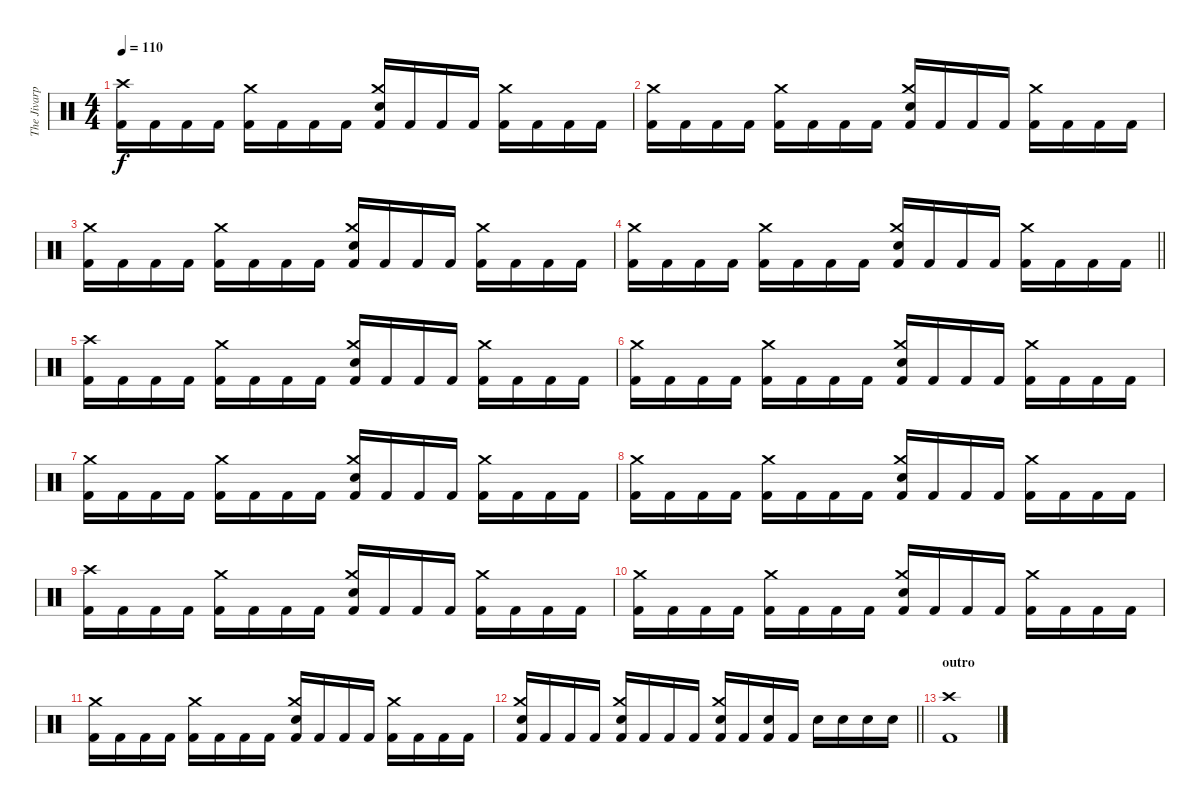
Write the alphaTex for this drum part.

\track ("The Jivarp" "The Jivarp") {instrument percussion}
\staff {score}
\articulation defaults
\ts (4 4)
\tempo 110
\clef neutral
\ks c
("Crash high (hit)" "Kick (hit) 2").16{dy f} "Kick (hit) 2".16 "Kick (hit) 2".16 "Kick (hit) 2".16 ("Crash medium (hit)" "Kick (hit) 2").16 "Kick (hit) 2".16 "Kick (hit) 2".16 "Kick (hit) 2".16 ("Crash medium (hit)" "Electric Snare (hit)" "Kick (hit) 2").16 "Kick (hit) 2".16 "Kick (hit) 2".16 "Kick (hit) 2".16 ("Crash medium (hit)" "Kick (hit) 2").16 "Kick (hit) 2".16 "Kick (hit) 2".16 "Kick (hit) 2".16 |
("Crash medium (hit)" "Kick (hit) 2").16 "Kick (hit) 2".16 "Kick (hit) 2".16 "Kick (hit) 2".16 ("Crash medium (hit)" "Kick (hit) 2").16 "Kick (hit) 2".16 "Kick (hit) 2".16 "Kick (hit) 2".16 ("Crash medium (hit)" "Electric Snare (hit)" "Kick (hit) 2").16 "Kick (hit) 2".16 "Kick (hit) 2".16 "Kick (hit) 2".16 ("Crash medium (hit)" "Kick (hit) 2").16 "Kick (hit) 2".16 "Kick (hit) 2".16 "Kick (hit) 2".16 |
("Crash medium (hit)" "Kick (hit) 2").16 "Kick (hit) 2".16 "Kick (hit) 2".16 "Kick (hit) 2".16 ("Crash medium (hit)" "Kick (hit) 2").16 "Kick (hit) 2".16 "Kick (hit) 2".16 "Kick (hit) 2".16 ("Crash medium (hit)" "Electric Snare (hit)" "Kick (hit) 2").16 "Kick (hit) 2".16 "Kick (hit) 2".16 "Kick (hit) 2".16 ("Crash medium (hit)" "Kick (hit) 2").16 "Kick (hit) 2".16 "Kick (hit) 2".16 "Kick (hit) 2".16 |
\barLineRight lightlight
("Crash medium (hit)" "Kick (hit) 2").16 "Kick (hit) 2".16 "Kick (hit) 2".16 "Kick (hit) 2".16 ("Crash medium (hit)" "Kick (hit) 2").16 "Kick (hit) 2".16 "Kick (hit) 2".16 "Kick (hit) 2".16 ("Crash medium (hit)" "Electric Snare (hit)" "Kick (hit) 2").16 "Kick (hit) 2".16 "Kick (hit) 2".16 "Kick (hit) 2".16 ("Crash medium (hit)" "Kick (hit) 2").16 "Kick (hit) 2".16 "Kick (hit) 2".16 "Kick (hit) 2".16 |
\section ("" "")
("Crash high (hit)" "Kick (hit) 2").16 "Kick (hit) 2".16 "Kick (hit) 2".16 "Kick (hit) 2".16 ("Crash medium (hit)" "Kick (hit) 2").16 "Kick (hit) 2".16 "Kick (hit) 2".16 "Kick (hit) 2".16 ("Crash medium (hit)" "Electric Snare (hit)" "Kick (hit) 2").16 "Kick (hit) 2".16 "Kick (hit) 2".16 "Kick (hit) 2".16 ("Crash medium (hit)" "Kick (hit) 2").16 "Kick (hit) 2".16 "Kick (hit) 2".16 "Kick (hit) 2".16 |
("Crash medium (hit)" "Kick (hit) 2").16 "Kick (hit) 2".16 "Kick (hit) 2".16 "Kick (hit) 2".16 ("Crash medium (hit)" "Kick (hit) 2").16 "Kick (hit) 2".16 "Kick (hit) 2".16 "Kick (hit) 2".16 ("Crash medium (hit)" "Electric Snare (hit)" "Kick (hit) 2").16 "Kick (hit) 2".16 "Kick (hit) 2".16 "Kick (hit) 2".16 ("Crash medium (hit)" "Kick (hit) 2").16 "Kick (hit) 2".16 "Kick (hit) 2".16 "Kick (hit) 2".16 |
("Crash medium (hit)" "Kick (hit) 2").16 "Kick (hit) 2".16 "Kick (hit) 2".16 "Kick (hit) 2".16 ("Crash medium (hit)" "Kick (hit) 2").16 "Kick (hit) 2".16 "Kick (hit) 2".16 "Kick (hit) 2".16 ("Crash medium (hit)" "Electric Snare (hit)" "Kick (hit) 2").16 "Kick (hit) 2".16 "Kick (hit) 2".16 "Kick (hit) 2".16 ("Crash medium (hit)" "Kick (hit) 2").16 "Kick (hit) 2".16 "Kick (hit) 2".16 "Kick (hit) 2".16 |
("Crash medium (hit)" "Kick (hit) 2").16 "Kick (hit) 2".16 "Kick (hit) 2".16 "Kick (hit) 2".16 ("Crash medium (hit)" "Kick (hit) 2").16 "Kick (hit) 2".16 "Kick (hit) 2".16 "Kick (hit) 2".16 ("Crash medium (hit)" "Electric Snare (hit)" "Kick (hit) 2").16 "Kick (hit) 2".16 "Kick (hit) 2".16 "Kick (hit) 2".16 ("Crash medium (hit)" "Kick (hit) 2").16 "Kick (hit) 2".16 "Kick (hit) 2".16 "Kick (hit) 2".16 |
("Crash high (hit)" "Kick (hit) 2").16 "Kick (hit) 2".16 "Kick (hit) 2".16 "Kick (hit) 2".16 ("Crash medium (hit)" "Kick (hit) 2").16 "Kick (hit) 2".16 "Kick (hit) 2".16 "Kick (hit) 2".16 ("Crash medium (hit)" "Electric Snare (hit)" "Kick (hit) 2").16 "Kick (hit) 2".16 "Kick (hit) 2".16 "Kick (hit) 2".16 ("Crash medium (hit)" "Kick (hit) 2").16 "Kick (hit) 2".16 "Kick (hit) 2".16 "Kick (hit) 2".16 |
("Crash medium (hit)" "Kick (hit) 2").16 "Kick (hit) 2".16 "Kick (hit) 2".16 "Kick (hit) 2".16 ("Crash medium (hit)" "Kick (hit) 2").16 "Kick (hit) 2".16 "Kick (hit) 2".16 "Kick (hit) 2".16 ("Crash medium (hit)" "Electric Snare (hit)" "Kick (hit) 2").16 "Kick (hit) 2".16 "Kick (hit) 2".16 "Kick (hit) 2".16 ("Crash medium (hit)" "Kick (hit) 2").16 "Kick (hit) 2".16 "Kick (hit) 2".16 "Kick (hit) 2".16 |
("Crash medium (hit)" "Kick (hit) 2").16 "Kick (hit) 2".16 "Kick (hit) 2".16 "Kick (hit) 2".16 ("Crash medium (hit)" "Kick (hit) 2").16 "Kick (hit) 2".16 "Kick (hit) 2".16 "Kick (hit) 2".16 ("Crash medium (hit)" "Electric Snare (hit)" "Kick (hit) 2").16 "Kick (hit) 2".16 "Kick (hit) 2".16 "Kick (hit) 2".16 ("Crash medium (hit)" "Kick (hit) 2").16 "Kick (hit) 2".16 "Kick (hit) 2".16 "Kick (hit) 2".16 |
\barLineRight lightlight
("Crash medium (hit)" "Electric Snare (hit)" "Kick (hit) 2").16 "Kick (hit) 2".16 "Kick (hit) 2".16 "Kick (hit) 2".16 ("Crash medium (hit)" "Electric Snare (hit)" "Kick (hit) 2").16 "Kick (hit) 2".16 "Kick (hit) 2".16 "Kick (hit) 2".16 ("Crash medium (hit)" "Electric Snare (hit)" "Kick (hit) 2").16 "Kick (hit) 2".16 ("Electric Snare (hit)" "Kick (hit) 2").16 "Kick (hit) 2".16 "Electric Snare (hit)".16 "Electric Snare (hit)".16 "Electric Snare (hit)".16 "Electric Snare (hit)".16 |
\section ("" "outro")
("Crash high (hit)" "Kick (hit) 2").1
